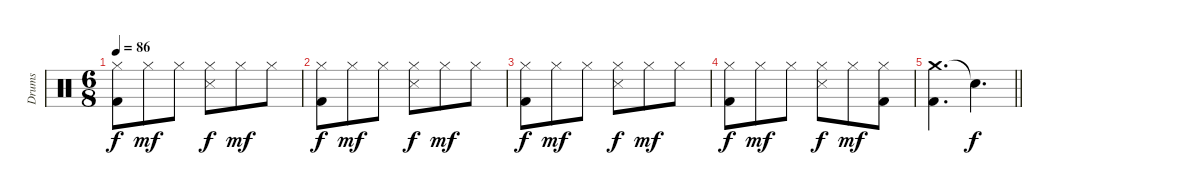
\track ("Drums" "Drums") {instrument percussion}
\staff {score}
\articulation defaults
\ts (6 8)
\tempo 86
\clef neutral
\ks c
("Hi-Hat (closed)" "Kick (hit) 2").8{dy f} "Hi-Hat (closed)".8{dy mf} "Hi-Hat (closed)".8 ("Hi-Hat (closed)" "Snare (side stick) 3").8{dy f} "Hi-Hat (closed)".8{dy mf} "Hi-Hat (closed)".8 |
("Hi-Hat (closed)" "Kick (hit) 2").8{dy f} "Hi-Hat (closed)".8{dy mf} "Hi-Hat (closed)".8 ("Hi-Hat (closed)" "Snare (side stick) 3").8{dy f} "Hi-Hat (closed)".8{dy mf} "Hi-Hat (closed)".8 |
("Hi-Hat (closed)" "Kick (hit) 2").8{dy f} "Hi-Hat (closed)".8{dy mf} "Hi-Hat (closed)".8 ("Hi-Hat (closed)" "Snare (side stick) 3").8{dy f} "Hi-Hat (closed)".8{dy mf} "Hi-Hat (closed)".8 |
("Hi-Hat (closed)" "Kick (hit) 2").8{dy f} "Hi-Hat (closed)".8{dy mf} "Hi-Hat (closed)".8 ("Hi-Hat (closed)" "Snare (side stick) 3").8{dy f} "Hi-Hat (closed)".8{dy mf} ("Hi-Hat (closed)" "Kick (hit) 2").8 |
\barLineRight lightlight
("Crash medium (hit)" "Kick (hit) 2").4{d} "Snare (hit)"{t}.4{d dy f}
